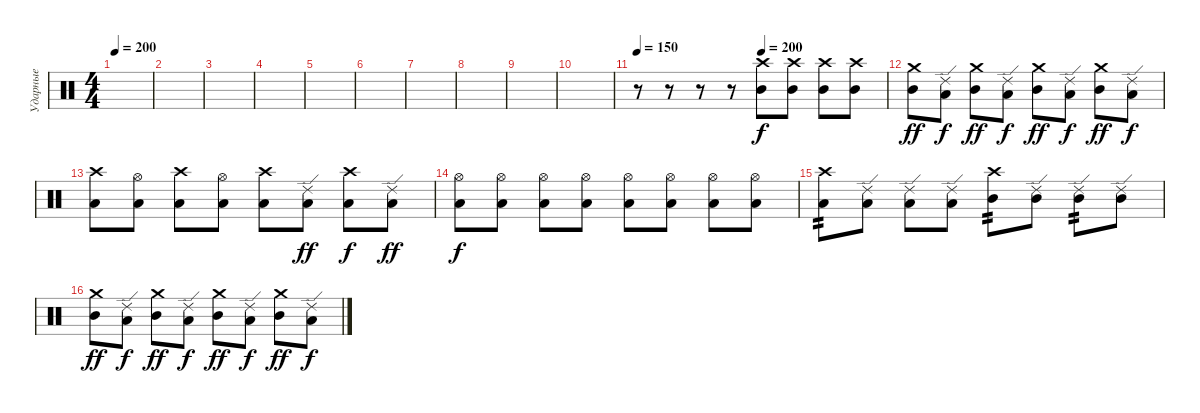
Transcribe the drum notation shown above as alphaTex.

\track ("Ударные" "Ударные") {instrument percussion}
\staff {score}
\articulation defaults
\ts (4 4)
\tempo 200
\clef neutral
\ks c
|
|
|
|
|
|
|
|
|
|
\tempo 150
\tempo (200 0.5)
r.8 r.8 r.8 r.8 ("Crash high (hit)" "Mid Tom (hit)").8 ("Crash high (hit)" "Mid Tom (hit)").8 ("Crash high (hit)" "Mid Tom (hit)").8 ("Crash high (hit)" "Mid Tom (hit)").8 |
("Crash medium (hit)" "Mid Tom (hit)").8{dy ff} ("Ride (edge) 2" "Low Tom (hit)").8{dy f} ("Crash medium (hit)" "Mid Tom (hit)").8{dy ff} ("Ride (edge) 2" "Low Tom (hit)").8{dy f} ("Crash medium (hit)" "Mid Tom (hit)").8{dy ff} ("Ride (edge) 2" "Low Tom (hit)").8{dy f} ("Crash medium (hit)" "Mid Tom (hit)").8{dy ff} ("Ride (edge) 2" "Low Tom (hit)").8{dy f} |
("Crash high (hit)" "Low Tom (hit)").8 ("Hi-Hat (open)" "Low Floor Tom (hit)").8 ("Crash high (hit)" "Low Tom (hit)").8 ("Hi-Hat (open)" "Low Floor Tom (hit)").8 ("Crash high (hit)" "Low Tom (hit)").8 ("Ride (edge) 2" "Low Floor Tom (hit)").8{dy ff} ("Crash high (hit)" "Low Tom (hit)").8{dy f} ("Ride (edge) 2" "Low Floor Tom (hit)").8{dy ff} |
("Hi-Hat (open)" "Low Tom (hit)").8{dy f} ("Hi-Hat (open)" "Low Tom (hit)").8 ("Hi-Hat (open)" "Low Tom (hit)").8 ("Hi-Hat (open)" "Low Tom (hit)").8 ("Hi-Hat (open)" "Low Tom (hit)").8 ("Hi-Hat (open)" "Low Tom (hit)").8 ("Hi-Hat (open)" "Low Tom (hit)").8 ("Hi-Hat (open)" "Low Tom (hit)").8 |
("Crash high (hit)" "Low Tom (hit)").8{tp 2} ("Ride (edge) 2" "Low Tom (hit)").8 ("Ride (edge) 2" "Low Tom (hit)").8 ("Ride (edge) 2" "Low Tom (hit)").8 ("Crash high (hit)" "Mid Tom (hit)").8{tp 2} ("Ride (edge) 2" "Mid Tom (hit)").8 ("Ride (edge) 2" "Mid Tom (hit)").8{tp 2} ("Ride (edge) 2" "Mid Tom (hit)").8 |
("Crash medium (hit)" "Mid Tom (hit)").8{dy ff} ("Ride (edge) 2" "Low Tom (hit)").8{dy f} ("Crash medium (hit)" "Mid Tom (hit)").8{dy ff} ("Ride (edge) 2" "Low Tom (hit)").8{dy f} ("Crash medium (hit)" "Mid Tom (hit)").8{dy ff} ("Ride (edge) 2" "Low Tom (hit)").8{dy f} ("Crash medium (hit)" "Mid Tom (hit)").8{dy ff} ("Ride (edge) 2" "Low Tom (hit)").8{dy f}
